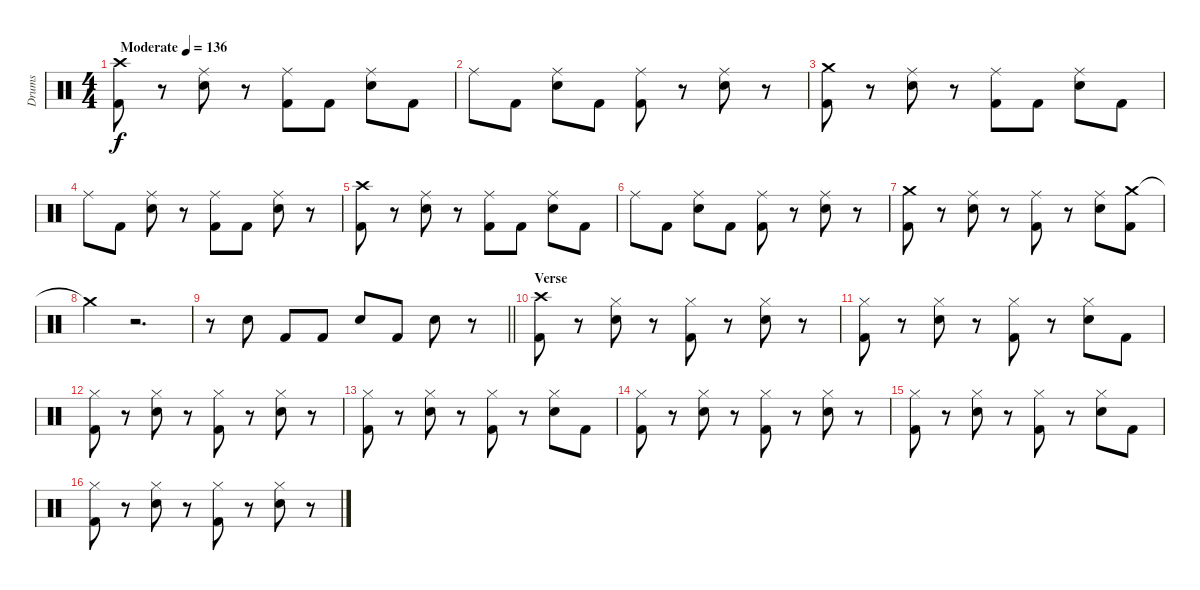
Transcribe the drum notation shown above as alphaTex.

\track ("Drums" "Drums") {instrument percussion}
\staff {score}
\articulation defaults
\ts (4 4)
\tempo (136 "Moderate")
\clef neutral
\ks c
("Crash high (hit)" "Kick (hit) 2").8{dy f} r.8 ("Ride (middle)" "Electric Snare (hit)").8 r.8 ("Ride (middle)" "Kick (hit) 2").8 "Kick (hit) 2".8 ("Ride (middle)" "Electric Snare (hit)").8 "Kick (hit) 2".8 |
"Ride (middle)".8 "Kick (hit) 2".8 ("Ride (middle)" "Electric Snare (hit)").8 "Kick (hit) 2".8 ("Ride (middle)" "Kick (hit) 2").8 r.8 ("Ride (middle)" "Electric Snare (hit)").8 r.8 |
("Crash medium (hit)" "Kick (hit) 2").8 r.8 ("Ride (middle)" "Electric Snare (hit)").8 r.8 ("Ride (middle)" "Kick (hit) 2").8 "Kick (hit) 2".8 ("Ride (middle)" "Electric Snare (hit)").8 "Kick (hit) 2".8 |
"Ride (middle)".8 "Kick (hit) 2".8 ("Ride (middle)" "Electric Snare (hit)").8 r.8 ("Ride (middle)" "Kick (hit) 2").8 "Kick (hit) 2".8 ("Ride (middle)" "Electric Snare (hit)").8 r.8 |
("Crash high (hit)" "Kick (hit) 2").8 r.8 ("Ride (middle)" "Electric Snare (hit)").8 r.8 ("Ride (middle)" "Kick (hit) 2").8 "Kick (hit) 2".8 ("Ride (middle)" "Electric Snare (hit)").8 "Kick (hit) 2".8 |
"Ride (middle)".8 "Kick (hit) 2".8 ("Ride (middle)" "Electric Snare (hit)").8 "Kick (hit) 2".8 ("Ride (middle)" "Kick (hit) 2").8 r.8 ("Ride (middle)" "Electric Snare (hit)").8 r.8 |
("Crash medium (hit)" "Kick (hit) 2").8 r.8 ("Ride (middle)" "Electric Snare (hit)").8 r.8 ("Ride (middle)" "Kick (hit) 2").8 r.8 ("Ride (middle)" "Electric Snare (hit)").8 ("Crash medium (hit)" "Kick (hit) 2").8 |
"Crash medium (hit)"{t}.4 r.2{d} |
\barLineRight lightlight
r.8 "Electric Snare (hit)".8 "Kick (hit) 2".8 "Kick (hit) 2".8 "Electric Snare (hit)".8 "Kick (hit) 2".8 "Electric Snare (hit)".8 r.8 |
\section ("" "Verse")
("Crash high (hit)" "Kick (hit) 2").8 r.8 ("Hi-Hat (closed)" "Electric Snare (hit)").8 r.8 ("Hi-Hat (closed)" "Kick (hit) 2").8 r.8 ("Hi-Hat (closed)" "Electric Snare (hit)").8 r.8 |
("Hi-Hat (closed)" "Kick (hit) 2").8 r.8 ("Hi-Hat (closed)" "Electric Snare (hit)").8 r.8 ("Hi-Hat (closed)" "Kick (hit) 2").8 r.8 ("Hi-Hat (closed)" "Electric Snare (hit)").8 "Kick (hit) 2".8 |
("Hi-Hat (closed)" "Kick (hit) 2").8 r.8 ("Hi-Hat (closed)" "Electric Snare (hit)").8 r.8 ("Hi-Hat (closed)" "Kick (hit) 2").8 r.8 ("Hi-Hat (closed)" "Electric Snare (hit)").8 r.8 |
("Hi-Hat (closed)" "Kick (hit) 2").8 r.8 ("Hi-Hat (closed)" "Electric Snare (hit)").8 r.8 ("Hi-Hat (closed)" "Kick (hit) 2").8 r.8 ("Hi-Hat (closed)" "Electric Snare (hit)").8 "Kick (hit) 2".8 |
("Hi-Hat (closed)" "Kick (hit) 2").8 r.8 ("Hi-Hat (closed)" "Electric Snare (hit)").8 r.8 ("Hi-Hat (closed)" "Kick (hit) 2").8 r.8 ("Hi-Hat (closed)" "Electric Snare (hit)").8 r.8 |
("Hi-Hat (closed)" "Kick (hit) 2").8 r.8 ("Hi-Hat (closed)" "Electric Snare (hit)").8 r.8 ("Hi-Hat (closed)" "Kick (hit) 2").8 r.8 ("Hi-Hat (closed)" "Electric Snare (hit)").8 "Kick (hit) 2".8 |
("Hi-Hat (closed)" "Kick (hit) 2").8 r.8 ("Hi-Hat (closed)" "Electric Snare (hit)").8 r.8 ("Hi-Hat (closed)" "Kick (hit) 2").8 r.8 ("Hi-Hat (closed)" "Electric Snare (hit)").8 r.8
